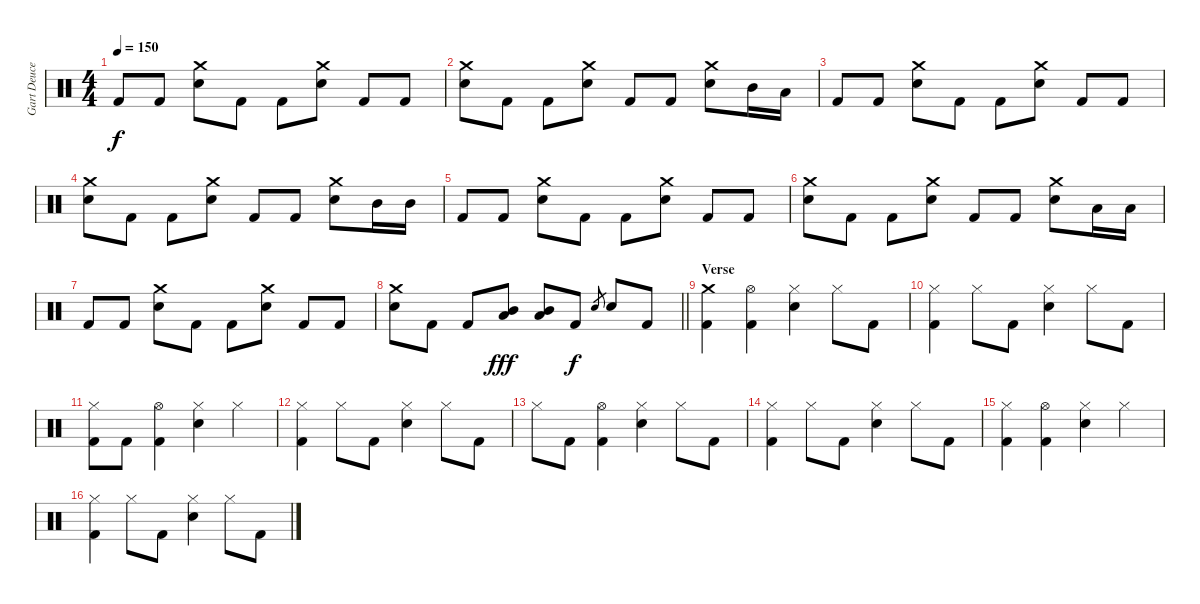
\track ("Gart Deuce" "Gart Deuce") {instrument percussion}
\staff {score}
\articulation defaults
\ts (4 4)
\tempo 150
\clef neutral
\ks c "Kick (hit) 2".8{dy f} "Kick (hit) 2".8
("Crash medium (hit)" "Snare (hit) 2").8 "Kick (hit) 2".8 "Kick (hit) 2".8 ("Crash medium (hit)" "Snare (hit) 2").8 "Kick (hit) 2".8 "Kick (hit) 2".8 |
("Crash medium (hit)" "Snare (hit) 2").8 "Kick (hit) 2".8 "Kick (hit) 2".8 ("Crash medium (hit)" "Snare (hit) 2").8 "Kick (hit) 2".8 "Kick (hit) 2".8 ("Crash medium (hit)" "Snare (hit) 2").8 "Mid Tom (hit)".16 "Low Tom (hit)".16 |
"Kick (hit) 2".8 "Kick (hit) 2".8 ("Crash medium (hit)" "Snare (hit) 2").8 "Kick (hit) 2".8 "Kick (hit) 2".8 ("Crash medium (hit)" "Snare (hit) 2").8 "Kick (hit) 2".8 "Kick (hit) 2".8 |
("Crash medium (hit)" "Snare (hit) 2").8 "Kick (hit) 2".8 "Kick (hit) 2".8 ("Crash medium (hit)" "Snare (hit) 2").8 "Kick (hit) 2".8 "Kick (hit) 2".8 ("Crash medium (hit)" "Snare (hit) 2").8 "Mid Tom (hit)".16 "Mid Tom (hit)".16 |
"Kick (hit) 2".8 "Kick (hit) 2".8 ("Crash medium (hit)" "Snare (hit) 2").8 "Kick (hit) 2".8 "Kick (hit) 2".8 ("Crash medium (hit)" "Snare (hit) 2").8 "Kick (hit) 2".8 "Kick (hit) 2".8 |
("Crash medium (hit)" "Snare (hit) 2").8 "Kick (hit) 2".8 "Kick (hit) 2".8 ("Crash medium (hit)" "Snare (hit) 2").8 "Kick (hit) 2".8 "Kick (hit) 2".8 ("Crash medium (hit)" "Snare (hit) 2").8 "Low Tom (hit)".16 "Low Tom (hit)".16 |
"Kick (hit) 2".8 "Kick (hit) 2".8 ("Crash medium (hit)" "Snare (hit) 2").8 "Kick (hit) 2".8 "Kick (hit) 2".8 ("Crash medium (hit)" "Snare (hit) 2").8 "Kick (hit) 2".8 "Kick (hit) 2".8 |
\barLineRight lightlight
("Crash medium (hit)" "Snare (hit) 2").8 "Kick (hit) 2".8 "Kick (hit) 2".8 ("Mid Tom (hit)" "Low Tom (hit)").8{dy fff} ("Mid Tom (hit)" "Low Tom (hit)").8 "Kick (hit) 2".8{dy f} "Snare (hit) 2".8{gr} "Snare (hit) 2".8 "Kick (hit) 2".8 |
\section ("" "Verse")
("Crash medium (hit)" "Kick (hit) 2").4 ("Hi-Hat (open)" "Kick (hit) 2").4 ("Hi-Hat (closed)" "Snare (hit) 2").4 "Hi-Hat (closed)".8 "Kick (hit) 2".8 |
("Hi-Hat (closed)" "Kick (hit) 2").4 "Hi-Hat (closed)".8 "Kick (hit) 2".8 ("Hi-Hat (closed)" "Snare (hit) 2").4 "Hi-Hat (closed)".8 "Kick (hit) 2".8 |
("Hi-Hat (closed)" "Kick (hit) 2").8 "Kick (hit) 2".8 ("Hi-Hat (open)" "Kick (hit) 2").4 ("Hi-Hat (closed)" "Snare (hit) 2").4 "Hi-Hat (closed)".4 |
("Hi-Hat (closed)" "Kick (hit) 2").4 "Hi-Hat (closed)".8 "Kick (hit) 2".8 ("Hi-Hat (closed)" "Snare (hit) 2").4 "Hi-Hat (closed)".8 "Kick (hit) 2".8 |
"Hi-Hat (closed)".8 "Kick (hit) 2".8 ("Hi-Hat (open)" "Kick (hit) 2").4 ("Hi-Hat (closed)" "Snare (hit) 2").4 "Hi-Hat (closed)".8 "Kick (hit) 2".8 |
("Hi-Hat (closed)" "Kick (hit) 2").4 "Hi-Hat (closed)".8 "Kick (hit) 2".8 ("Hi-Hat (closed)" "Snare (hit) 2").4 "Hi-Hat (closed)".8 "Kick (hit) 2".8 |
("Hi-Hat (closed)" "Kick (hit) 2").4 ("Hi-Hat (open)" "Kick (hit) 2").4 ("Hi-Hat (closed)" "Snare (hit) 2").4 "Hi-Hat (closed)".4 |
("Hi-Hat (closed)" "Kick (hit) 2").4 "Hi-Hat (closed)".8 "Kick (hit) 2".8 ("Hi-Hat (closed)" "Snare (hit) 2").4 "Hi-Hat (closed)".8 "Kick (hit) 2".8
